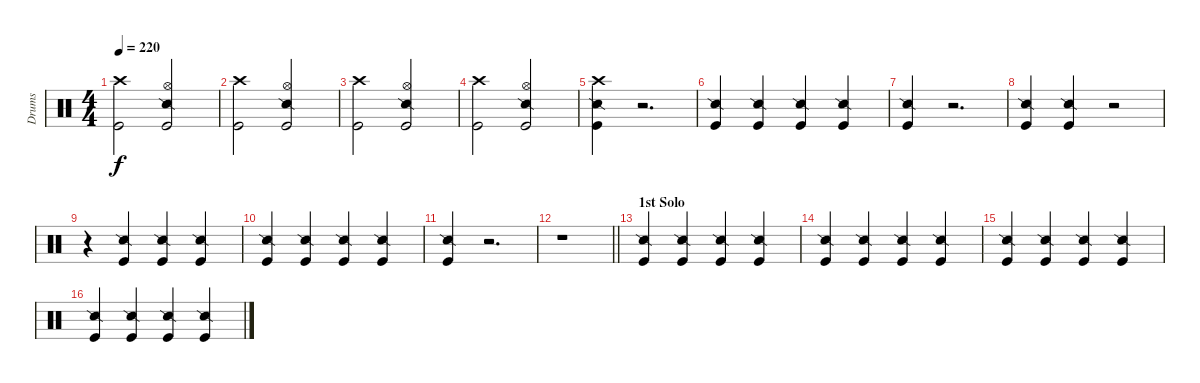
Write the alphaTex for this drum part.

\track ("Drums" "Drums") {instrument percussion}
\staff {score}
\articulation defaults
\ts (4 4)
\tempo 220
\clef neutral
\ks c
("Crash high (hit)" "Kick (hit)").2{dy f} ("Hi-Hat (open)" "Snare (side stick) 2" "Kick (hit)").2 |
("Crash high (hit)" "Kick (hit)").2 ("Hi-Hat (open)" "Snare (side stick) 2" "Kick (hit)").2 |
("Crash high (hit)" "Kick (hit)").2 ("Hi-Hat (open)" "Snare (side stick) 2" "Kick (hit)").2 |
("Crash high (hit)" "Kick (hit)").2 ("Hi-Hat (open)" "Snare (side stick) 2" "Kick (hit)").2 |
("Crash high (hit)" "Snare (side stick) 2" "Kick (hit)").4 r.2{d} |
("Snare (side stick) 2" "Kick (hit)").4 ("Snare (side stick) 2" "Kick (hit)").4 ("Kick (hit)" "Snare (side stick) 2").4 ("Kick (hit)" "Snare (side stick) 2").4 |
("Snare (side stick) 2" "Kick (hit)").4 r.2{d} |
("Snare (side stick) 2" "Kick (hit)").4 ("Snare (side stick) 2" "Kick (hit)").4 r.2 |
r.4 ("Snare (side stick) 2" "Kick (hit)").4 ("Snare (side stick) 2" "Kick (hit)").4 ("Kick (hit)" "Snare (side stick) 2").4 |
("Kick (hit)" "Snare (side stick) 2").4 ("Kick (hit)" "Snare (side stick) 2").4 ("Kick (hit)" "Snare (side stick) 2").4 ("Kick (hit)" "Snare (side stick) 2").4 |
("Kick (hit)" "Snare (side stick) 2").4 r.2{d} |
\barLineRight lightlight
r.1 |
\section ("" "1st Solo")
("Snare (side stick) 2" "Kick (hit)").4 ("Snare (side stick) 2" "Kick (hit)").4 ("Snare (side stick) 2" "Kick (hit)").4 ("Snare (side stick) 2" "Kick (hit)").4 |
("Snare (side stick) 2" "Kick (hit)").4 ("Snare (side stick) 2" "Kick (hit)").4 ("Snare (side stick) 2" "Kick (hit)").4 ("Snare (side stick) 2" "Kick (hit)").4 |
("Snare (side stick) 2" "Kick (hit)").4 ("Snare (side stick) 2" "Kick (hit)").4 ("Snare (side stick) 2" "Kick (hit)").4 ("Snare (side stick) 2" "Kick (hit)").4 |
("Snare (side stick) 2" "Kick (hit)").4 ("Snare (side stick) 2" "Kick (hit)").4 ("Snare (side stick) 2" "Kick (hit)").4 ("Snare (side stick) 2" "Kick (hit)").4
